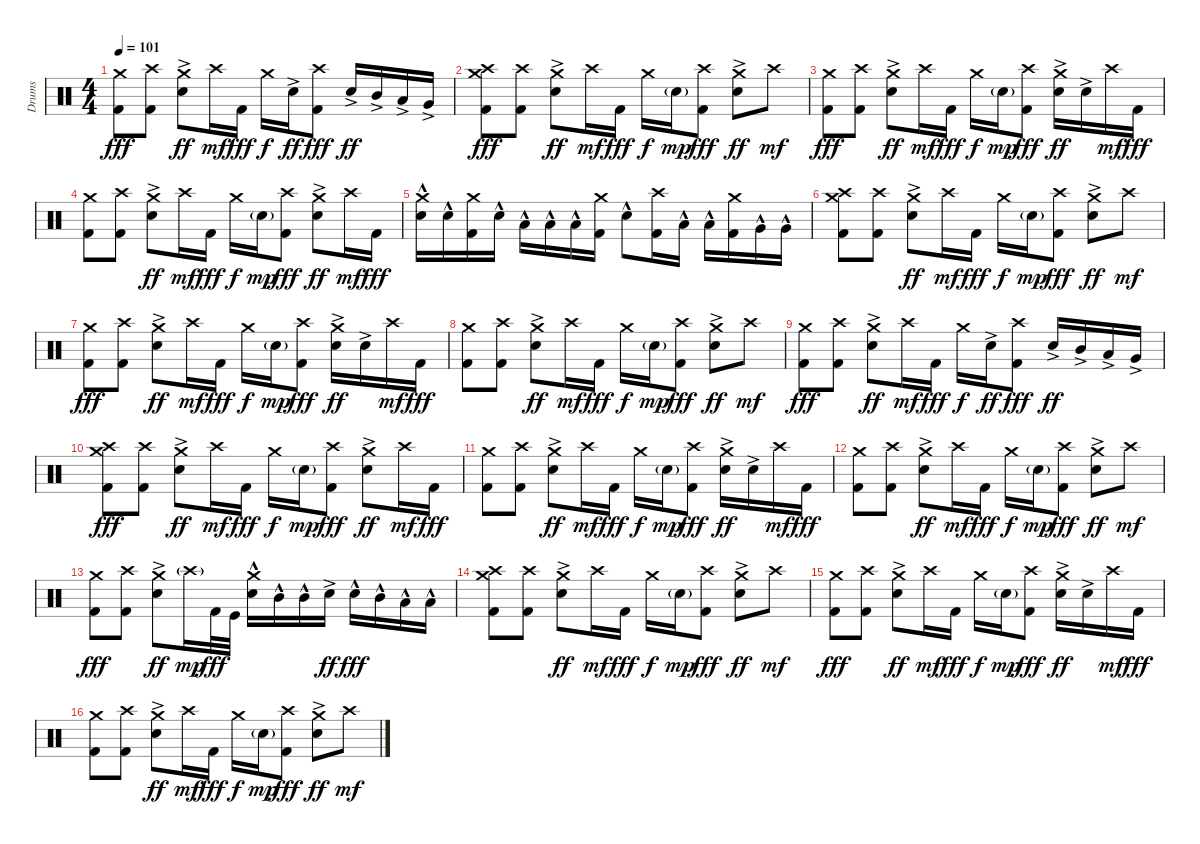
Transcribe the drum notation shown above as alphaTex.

\track ("Drums" "Drums") {instrument percussion}
\staff {score}
\articulation defaults
\ts (4 4)
\tempo 101
\clef neutral
\ks c
("Crash medium (hit)" "Kick (hit) 2").8{dy fff} ("Crash high (hit)" "Kick (hit) 2").8 ("Crash medium (hit)" "Electric Snare (hit)"{ac}).8{dy ff} "Crash high (hit)".16{dy mf} "Kick (hit) 2".16{dy fff} "Crash medium (hit)".16{dy f} "Electric Snare (hit)"{ac}.16{dy ff} ("Crash high (hit)" "Kick (hit) 2").8{dy fff} "Electric Snare (hit)"{ac}.16{dy ff} "Mid Tom (hit)"{ac}.16 "Low Tom (hit)"{ac}.16 "Very Low Tom (hit)"{ac}.16 |
("Crash medium (hit)" "Crash high (hit)" "Kick (hit) 2").8{dy fff} ("Crash high (hit)" "Kick (hit) 2").8 ("Crash medium (hit)" "Electric Snare (hit)"{ac}).8{dy ff} "Crash high (hit)".16{dy mf} "Kick (hit) 2".16{dy fff} "Crash medium (hit)".16{dy f} "Snare (hit) 2"{g}.16{dy mp} ("Crash high (hit)" "Kick (hit) 2").8{dy fff} ("Crash medium (hit)" "Electric Snare (hit)"{ac}).8{dy ff} "Crash high (hit)".8{dy mf} |
("Crash medium (hit)" "Kick (hit) 2").8{dy fff} ("Crash high (hit)" "Kick (hit) 2").8 ("Crash medium (hit)" "Electric Snare (hit)"{ac}).8{dy ff} "Crash high (hit)".16{dy mf} "Kick (hit) 2".16{dy fff} "Crash medium (hit)".16{dy f} "Snare (hit) 2"{g}.16{dy mp} ("Crash high (hit)" "Kick (hit) 2").8{dy fff} ("Crash medium (hit)" "Electric Snare (hit)"{ac}).16{dy ff} "Electric Snare (hit)"{ac}.16 "Crash high (hit)".16{dy mf} "Kick (hit) 2".16{dy fff} |
("Crash medium (hit)" "Kick (hit) 2").8 ("Crash high (hit)" "Kick (hit) 2").8 ("Crash medium (hit)" "Electric Snare (hit)"{ac}).8{dy ff} "Crash high (hit)".16{dy mf} "Kick (hit) 2".16{dy fff} "Crash medium (hit)".16{dy f} "Snare (hit) 2"{g}.16{dy mp} ("Crash high (hit)" "Kick (hit) 2").8{dy fff} ("Crash medium (hit)" "Electric Snare (hit)"{ac}).8{dy ff} "Crash high (hit)".16{dy mf} "Kick (hit) 2".16{dy fff} |
("Crash medium (hit)" "Electric Snare (hit)"{hac}).16 "Electric Snare (hit)"{hac}.16 ("Crash medium (hit)" "Kick (hit) 2").16 "Electric Snare (hit)"{hac}.16 "Low Tom (hit)"{hac}.16 "Low Tom (hit)"{hac}.16 "Low Tom (hit)"{hac}.16 ("Crash medium (hit)" "Kick (hit) 2").16 "Electric Snare (hit)"{hac}.8 ("Crash high (hit)" "Kick (hit) 2").16 "Low Tom (hit)"{hac}.16 "Low Tom (hit)"{hac}.16 ("Crash medium (hit)" "Kick (hit) 2").16 "Very Low Tom (hit)"{hac}.16 "Very Low Tom (hit)"{hac}.16 |
("Crash medium (hit)" "Crash high (hit)" "Kick (hit) 2").8 ("Crash high (hit)" "Kick (hit) 2").8 ("Crash medium (hit)" "Electric Snare (hit)"{ac}).8{dy ff} "Crash high (hit)".16{dy mf} "Kick (hit) 2".16{dy fff} "Crash medium (hit)".16{dy f} "Snare (hit) 2"{g}.16{dy mp} ("Crash high (hit)" "Kick (hit) 2").8{dy fff} ("Crash medium (hit)" "Electric Snare (hit)"{ac}).8{dy ff} "Crash high (hit)".8{dy mf} |
("Crash medium (hit)" "Kick (hit) 2").8{dy fff} ("Crash high (hit)" "Kick (hit) 2").8 ("Crash medium (hit)" "Electric Snare (hit)"{ac}).8{dy ff} "Crash high (hit)".16{dy mf} "Kick (hit) 2".16{dy fff} "Crash medium (hit)".16{dy f} "Snare (hit) 2"{g}.16{dy mp} ("Crash high (hit)" "Kick (hit) 2").8{dy fff} ("Crash medium (hit)" "Electric Snare (hit)"{ac}).16{dy ff} "Electric Snare (hit)"{ac}.16 "Crash high (hit)".16{dy mf} "Kick (hit) 2".16{dy fff} |
("Crash medium (hit)" "Kick (hit) 2").8 ("Crash high (hit)" "Kick (hit) 2").8 ("Crash medium (hit)" "Electric Snare (hit)"{ac}).8{dy ff} "Crash high (hit)".16{dy mf} "Kick (hit) 2".16{dy fff} "Crash medium (hit)".16{dy f} "Snare (hit) 2"{g}.16{dy mp} ("Crash high (hit)" "Kick (hit) 2").8{dy fff} ("Crash medium (hit)" "Electric Snare (hit)"{ac}).8{dy ff} "Crash high (hit)".8{dy mf} |
("Crash medium (hit)" "Kick (hit) 2").8{dy fff} ("Crash high (hit)" "Kick (hit) 2").8 ("Crash medium (hit)" "Electric Snare (hit)"{ac}).8{dy ff} "Crash high (hit)".16{dy mf} "Kick (hit) 2".16{dy fff} "Crash medium (hit)".16{dy f} "Electric Snare (hit)"{ac}.16{dy ff} ("Crash high (hit)" "Kick (hit) 2").8{dy fff} "Electric Snare (hit)"{ac}.16{dy ff} "Mid Tom (hit)"{ac}.16 "Low Tom (hit)"{ac}.16 "Very Low Tom (hit)"{ac}.16 |
("Crash medium (hit)" "Crash high (hit)" "Kick (hit) 2").8{dy fff} ("Crash high (hit)" "Kick (hit) 2").8 ("Crash medium (hit)" "Electric Snare (hit)"{ac}).8{dy ff} "Crash high (hit)".16{dy mf} "Kick (hit) 2".16{dy fff} "Crash medium (hit)".16{dy f} "Snare (hit) 2"{g}.16{dy mp} ("Crash high (hit)" "Kick (hit) 2").8{dy fff} ("Crash medium (hit)" "Electric Snare (hit)"{ac}).8{dy ff} "Crash high (hit)".16{dy mf} "Kick (hit) 2".16{dy fff} |
("Crash medium (hit)" "Kick (hit) 2").8 ("Crash high (hit)" "Kick (hit) 2").8 ("Crash medium (hit)" "Electric Snare (hit)"{ac}).8{dy ff} "Crash high (hit)".16{dy mf} "Kick (hit) 2".16{dy fff} "Crash medium (hit)".16{dy f} "Snare (hit) 2"{g}.16{dy mp} ("Crash high (hit)" "Kick (hit) 2").8{dy fff} ("Crash medium (hit)" "Electric Snare (hit)"{ac}).16{dy ff} "Electric Snare (hit)"{ac}.16 "Crash high (hit)".16{dy mf} "Kick (hit) 2".16{dy fff} |
("Crash medium (hit)" "Kick (hit) 2").8 ("Crash high (hit)" "Kick (hit) 2").8 ("Crash medium (hit)" "Electric Snare (hit)"{ac}).8{dy ff} "Crash high (hit)".16{dy mf} "Kick (hit) 2".16{dy fff} "Crash medium (hit)".16{dy f} "Snare (hit) 2"{g}.16{dy mp} ("Crash high (hit)" "Kick (hit) 2").8{dy fff} ("Crash medium (hit)" "Electric Snare (hit)"{ac}).8{dy ff} "Crash high (hit)".8{dy mf} |
("Crash medium (hit)" "Kick (hit) 2").8{dy fff} ("Crash high (hit)" "Kick (hit) 2").8 ("Crash medium (hit)" "Electric Snare (hit)"{ac}).8{dy ff} "Crash high (hit)"{g}.16{dy mp} "Kick (hit) 2".32{dy fff} "Kick (hit)".32 ("Crash medium (hit)" "Electric Snare (hit)"{hac}).16 "Mid Tom (hit)"{hac}.16 "Mid Tom (hit)"{hac}.16 "Electric Snare (hit)"{ac}.16{dy ff} "Electric Snare (hit)"{hac}.16{dy fff} "Mid Tom (hit)"{hac}.16 "Low Tom (hit)"{hac}.16 "Low Tom (hit)"{hac}.16 |
("Crash medium (hit)" "Crash high (hit)" "Kick (hit) 2").8 ("Crash high (hit)" "Kick (hit) 2").8 ("Crash medium (hit)" "Electric Snare (hit)"{ac}).8{dy ff} "Crash high (hit)".16{dy mf} "Kick (hit) 2".16{dy fff} "Crash medium (hit)".16{dy f} "Snare (hit) 2"{g}.16{dy mp} ("Crash high (hit)" "Kick (hit) 2").8{dy fff} ("Crash medium (hit)" "Electric Snare (hit)"{ac}).8{dy ff} "Crash high (hit)".8{dy mf} |
("Crash medium (hit)" "Kick (hit) 2").8{dy fff} ("Crash high (hit)" "Kick (hit) 2").8 ("Crash medium (hit)" "Electric Snare (hit)"{ac}).8{dy ff} "Crash high (hit)".16{dy mf} "Kick (hit) 2".16{dy fff} "Crash medium (hit)".16{dy f} "Snare (hit) 2"{g}.16{dy mp} ("Crash high (hit)" "Kick (hit) 2").8{dy fff} ("Crash medium (hit)" "Electric Snare (hit)"{ac}).16{dy ff} "Electric Snare (hit)"{ac}.16 "Crash high (hit)".16{dy mf} "Kick (hit) 2".16{dy fff} |
("Crash medium (hit)" "Kick (hit) 2").8 ("Crash high (hit)" "Kick (hit) 2").8 ("Crash medium (hit)" "Electric Snare (hit)"{ac}).8{dy ff} "Crash high (hit)".16{dy mf} "Kick (hit) 2".16{dy fff} "Crash medium (hit)".16{dy f} "Snare (hit) 2"{g}.16{dy mp} ("Crash high (hit)" "Kick (hit) 2").8{dy fff} ("Crash medium (hit)" "Electric Snare (hit)"{ac}).8{dy ff} "Crash high (hit)".8{dy mf}
